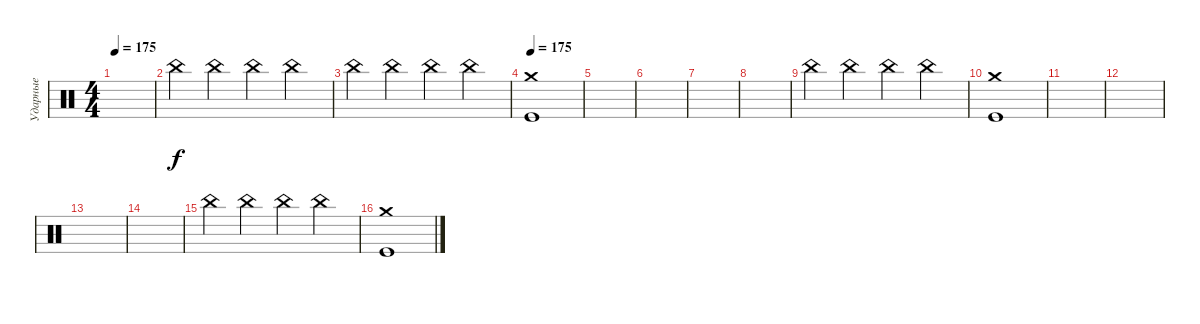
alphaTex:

\track ("Ударные" "Ударные") {instrument percussion}
\staff {score}
\articulation defaults
\ts (4 4)
\tempo 175
\clef neutral
\ks c
|
"China (hit)".4 "China (hit)".4 "China (hit)".4 "China (hit)".4 |
"China (hit)".4 "China (hit)".4 "China (hit)".4 "China (hit)".4 |
\tempo 175
("Kick (hit)" "Crash medium (hit)").1 |
|
|
|
|
"China (hit)".4 "China (hit)".4 "China (hit)".4 "China (hit)".4 |
("Kick (hit)" "Crash medium (hit)").1 |
|
|
|
|
"China (hit)".4 "China (hit)".4 "China (hit)".4 "China (hit)".4 |
("Kick (hit)" "Crash medium (hit)").1
